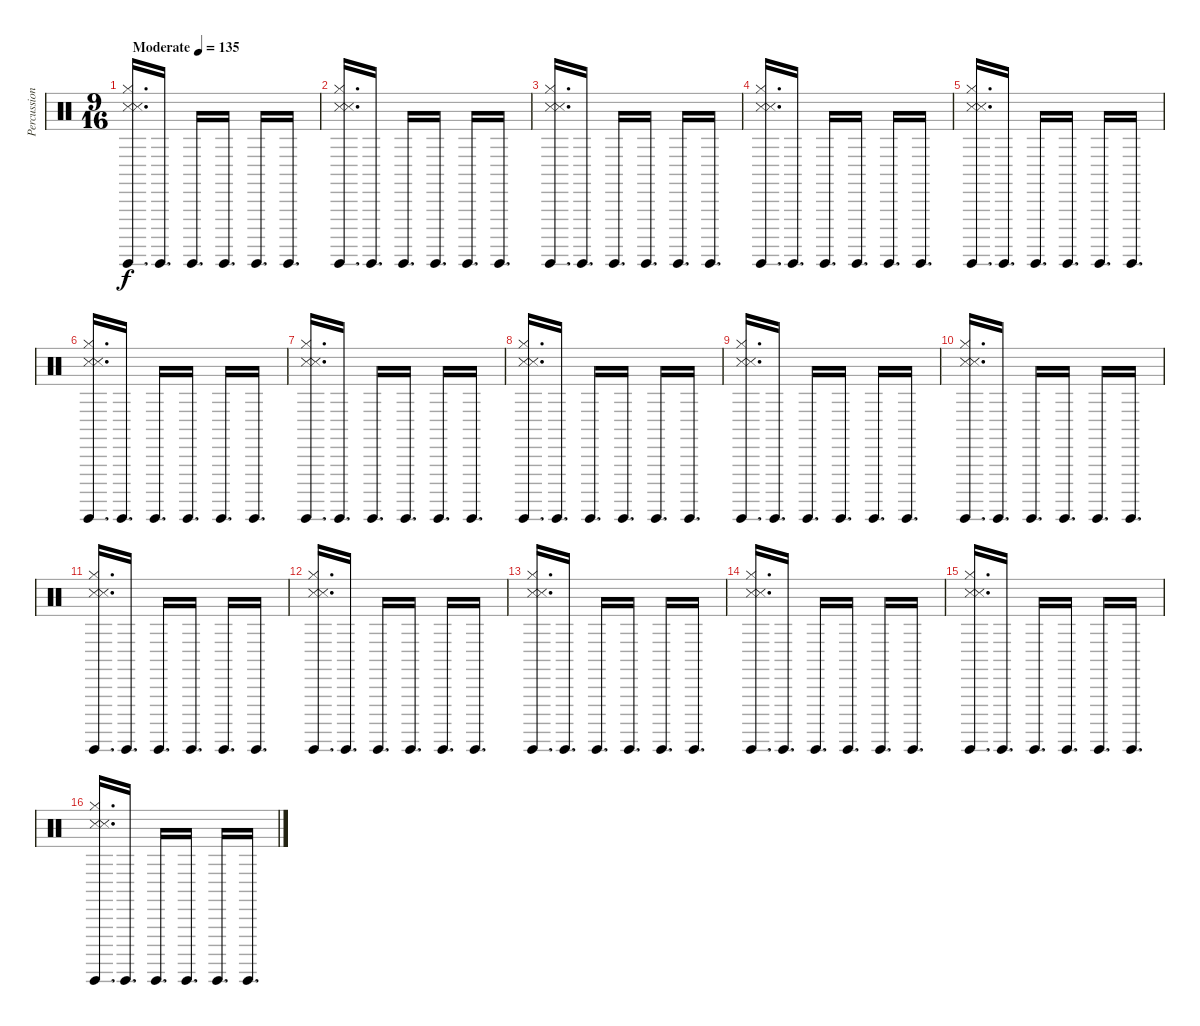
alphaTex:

\track ("Percussion" "Percussion") {instrument percussion}
\staff {score}
\articulation defaults
\ts (9 16)
\tempo (135 "Moderate")
\clef neutral
\ks c
("Guiro (hit)" "Hi-Hat (closed)" "Metronome (hit)" "Snare (side stick) 3").16{d dy f volume 0} "Guiro (hit)".16{d volume 13} "Guiro (hit)".16{d} "Guiro (hit)".16{d} "Guiro (hit)".16{d} "Guiro (hit)".16{d} |
("Guiro (hit)" "Hi-Hat (closed)" "Metronome (hit)" "Snare (side stick) 3").16{d} "Guiro (hit)".16{d} "Guiro (hit)".16{d} "Guiro (hit)".16{d} "Guiro (hit)".16{d} "Guiro (hit)".16{d} |
("Guiro (hit)" "Hi-Hat (closed)" "Metronome (hit)" "Snare (side stick) 3").16{d} "Guiro (hit)".16{d} "Guiro (hit)".16{d} "Guiro (hit)".16{d} "Guiro (hit)".16{d} "Guiro (hit)".16{d} |
("Guiro (hit)" "Hi-Hat (closed)" "Metronome (hit)" "Snare (side stick) 3").16{d} "Guiro (hit)".16{d} "Guiro (hit)".16{d} "Guiro (hit)".16{d} "Guiro (hit)".16{d} "Guiro (hit)".16{d} |
("Guiro (hit)" "Hi-Hat (closed)" "Metronome (hit)" "Snare (side stick) 3").16{d} "Guiro (hit)".16{d} "Guiro (hit)".16{d} "Guiro (hit)".16{d} "Guiro (hit)".16{d} "Guiro (hit)".16{d} |
("Guiro (hit)" "Hi-Hat (closed)" "Metronome (hit)" "Snare (side stick) 3").16{d} "Guiro (hit)".16{d} "Guiro (hit)".16{d} "Guiro (hit)".16{d} "Guiro (hit)".16{d} "Guiro (hit)".16{d} |
("Guiro (hit)" "Hi-Hat (closed)" "Metronome (hit)" "Snare (side stick) 3").16{d} "Guiro (hit)".16{d} "Guiro (hit)".16{d} "Guiro (hit)".16{d} "Guiro (hit)".16{d} "Guiro (hit)".16{d} |
("Guiro (hit)" "Hi-Hat (closed)" "Metronome (hit)" "Snare (side stick) 3").16{d} "Guiro (hit)".16{d} "Guiro (hit)".16{d} "Guiro (hit)".16{d} "Guiro (hit)".16{d} "Guiro (hit)".16{d} |
("Guiro (hit)" "Hi-Hat (closed)" "Metronome (hit)" "Snare (side stick) 3").16{d} "Guiro (hit)".16{d} "Guiro (hit)".16{d} "Guiro (hit)".16{d} "Guiro (hit)".16{d} "Guiro (hit)".16{d} |
("Guiro (hit)" "Hi-Hat (closed)" "Metronome (hit)" "Snare (side stick) 3").16{d} "Guiro (hit)".16{d} "Guiro (hit)".16{d} "Guiro (hit)".16{d} "Guiro (hit)".16{d} "Guiro (hit)".16{d} |
("Guiro (hit)" "Hi-Hat (closed)" "Metronome (hit)" "Snare (side stick) 3").16{d} "Guiro (hit)".16{d} "Guiro (hit)".16{d} "Guiro (hit)".16{d} "Guiro (hit)".16{d} "Guiro (hit)".16{d} |
("Guiro (hit)" "Hi-Hat (closed)" "Metronome (hit)" "Snare (side stick) 3").16{d} "Guiro (hit)".16{d} "Guiro (hit)".16{d} "Guiro (hit)".16{d} "Guiro (hit)".16{d} "Guiro (hit)".16{d} |
("Guiro (hit)" "Hi-Hat (closed)" "Metronome (hit)" "Snare (side stick) 3").16{d} "Guiro (hit)".16{d} "Guiro (hit)".16{d} "Guiro (hit)".16{d} "Guiro (hit)".16{d} "Guiro (hit)".16{d} |
("Guiro (hit)" "Hi-Hat (closed)" "Metronome (hit)" "Snare (side stick) 3").16{d} "Guiro (hit)".16{d} "Guiro (hit)".16{d} "Guiro (hit)".16{d} "Guiro (hit)".16{d} "Guiro (hit)".16{d} |
("Guiro (hit)" "Hi-Hat (closed)" "Metronome (hit)" "Snare (side stick) 3").16{d} "Guiro (hit)".16{d} "Guiro (hit)".16{d} "Guiro (hit)".16{d} "Guiro (hit)".16{d} "Guiro (hit)".16{d} |
("Guiro (hit)" "Hi-Hat (closed)" "Metronome (hit)" "Snare (side stick) 3").16{d} "Guiro (hit)".16{d} "Guiro (hit)".16{d} "Guiro (hit)".16{d} "Guiro (hit)".16{d} "Guiro (hit)".16{d}
